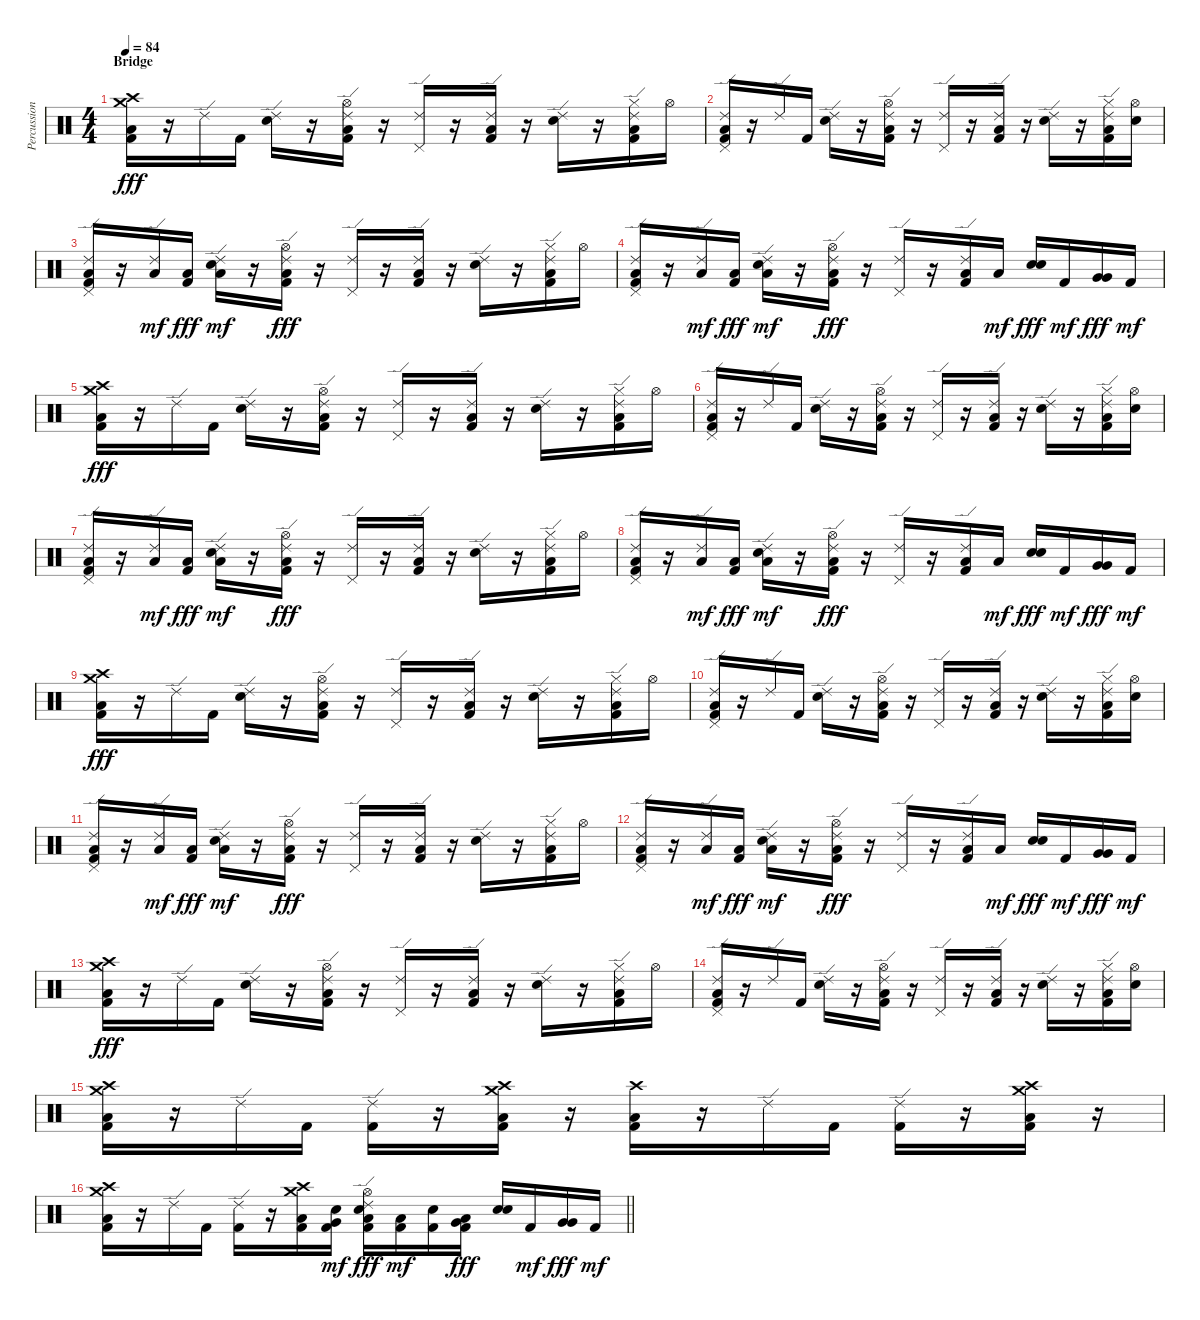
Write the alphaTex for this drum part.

\track ("Percussions" "Percussion") {instrument percussion}
\staff {score}
\articulation defaults
\ts (4 4)
\section ("" "Bridge")
\tempo 84
\clef neutral
\ks c
("Crash medium (hit)" "Crash high (hit)" "Low Floor Tom (hit)" "Kick (hit) 2").16{dy fff} r.16 "Ride (edge) 2".16 "Kick (hit) 2".16 ("Ride (edge) 2" "Electric Snare (hit)").16 r.16 ("Ride (edge) 2" "Hi-Hat (open)" "Low Floor Tom (hit)" "Kick (hit) 2").16 r.16 ("Ride (edge) 2" "Pedal Hi-Hat (hit)").16 r.16 ("Ride (edge) 2" "Low Floor Tom (hit)" "Kick (hit) 2").16 r.16 ("Ride (edge) 2" "Electric Snare (hit)").16 r.16 ("Ride (edge) 2" "Hi-Hat (closed)" "Low Floor Tom (hit)" "Kick (hit) 2").16 "Hi-Hat (open)".16 |
("Ride (edge) 2" "Pedal Hi-Hat (hit)" "Low Floor Tom (hit)" "Kick (hit) 2").16 r.16 "Ride (edge) 2".16 "Kick (hit) 2".16 ("Ride (edge) 2" "Electric Snare (hit)").16 r.16 ("Ride (edge) 2" "Hi-Hat (open)" "Low Floor Tom (hit)" "Kick (hit) 2").16 r.16 ("Ride (edge) 2" "Pedal Hi-Hat (hit)").16 r.16 ("Ride (edge) 2" "Low Floor Tom (hit)" "Kick (hit) 2").16 r.16 ("Ride (edge) 2" "Electric Snare (hit)").16 r.16 ("Ride (edge) 2" "Hi-Hat (closed)" "Low Floor Tom (hit)" "Kick (hit) 2").16 ("Hi-Hat (open)" "Electric Snare (hit)").16 |
("Ride (edge) 2" "Pedal Hi-Hat (hit)" "Low Floor Tom (hit)" "Kick (hit) 2").16 r.16 ("Ride (edge) 2" "Low Floor Tom (hit)").16{dy mf} ("Low Floor Tom (hit)" "Kick (hit) 2").16{dy fff} ("Ride (edge) 2" "Electric Snare (hit)" "Low Floor Tom (hit)").16{dy mf} r.16 ("Ride (edge) 2" "Hi-Hat (open)" "Low Floor Tom (hit)" "Kick (hit) 2").16{dy fff} r.16 ("Ride (edge) 2" "Pedal Hi-Hat (hit)").16 r.16 ("Ride (edge) 2" "Low Floor Tom (hit)" "Kick (hit) 2").16 r.16 ("Ride (edge) 2" "Electric Snare (hit)").16 r.16 ("Ride (edge) 2" "Hi-Hat (closed)" "Low Floor Tom (hit)" "Kick (hit) 2").16 "Hi-Hat (open)".16 |
("Ride (edge) 2" "Pedal Hi-Hat (hit)" "Low Floor Tom (hit)" "Kick (hit) 2").16 r.16 ("Ride (edge) 2" "Low Floor Tom (hit)").16{dy mf} ("Low Floor Tom (hit)" "Kick (hit) 2").16{dy fff} ("Ride (edge) 2" "Electric Snare (hit)" "Low Floor Tom (hit)").16{dy mf} r.16 ("Ride (edge) 2" "Hi-Hat (open)" "Low Floor Tom (hit)" "Kick (hit) 2").16{dy fff} r.16 ("Ride (edge) 2" "Pedal Hi-Hat (hit)").16 r.16 ("Ride (edge) 2" "Low Floor Tom (hit)" "Kick (hit) 2").16 "Low Floor Tom (hit)".16{dy mf} ("Electric Snare (hit)" "Electric Snare (hit)").16{dy fff} "Kick (hit) 2".16{dy mf} ("Very Low Tom (hit)" "Very Low Tom (hit)").16{dy fff} "Kick (hit) 2".16{dy mf} |
("Crash medium (hit)" "Crash high (hit)" "Low Floor Tom (hit)" "Kick (hit) 2").16{dy fff} r.16 "Ride (edge) 2".16 "Kick (hit) 2".16 ("Ride (edge) 2" "Electric Snare (hit)").16 r.16 ("Ride (edge) 2" "Hi-Hat (open)" "Low Floor Tom (hit)" "Kick (hit) 2").16 r.16 ("Ride (edge) 2" "Pedal Hi-Hat (hit)").16 r.16 ("Ride (edge) 2" "Low Floor Tom (hit)" "Kick (hit) 2").16 r.16 ("Ride (edge) 2" "Electric Snare (hit)").16 r.16 ("Ride (edge) 2" "Hi-Hat (closed)" "Low Floor Tom (hit)" "Kick (hit) 2").16 "Hi-Hat (open)".16 |
("Ride (edge) 2" "Pedal Hi-Hat (hit)" "Low Floor Tom (hit)" "Kick (hit) 2").16 r.16 "Ride (edge) 2".16 "Kick (hit) 2".16 ("Ride (edge) 2" "Electric Snare (hit)").16 r.16 ("Ride (edge) 2" "Hi-Hat (open)" "Low Floor Tom (hit)" "Kick (hit) 2").16 r.16 ("Ride (edge) 2" "Pedal Hi-Hat (hit)").16 r.16 ("Ride (edge) 2" "Low Floor Tom (hit)" "Kick (hit) 2").16 r.16 ("Ride (edge) 2" "Electric Snare (hit)").16 r.16 ("Ride (edge) 2" "Hi-Hat (closed)" "Low Floor Tom (hit)" "Kick (hit) 2").16 ("Hi-Hat (open)" "Electric Snare (hit)").16 |
("Ride (edge) 2" "Pedal Hi-Hat (hit)" "Low Floor Tom (hit)" "Kick (hit) 2").16 r.16 ("Ride (edge) 2" "Low Floor Tom (hit)").16{dy mf} ("Low Floor Tom (hit)" "Kick (hit) 2").16{dy fff} ("Ride (edge) 2" "Electric Snare (hit)" "Low Floor Tom (hit)").16{dy mf} r.16 ("Ride (edge) 2" "Hi-Hat (open)" "Low Floor Tom (hit)" "Kick (hit) 2").16{dy fff} r.16 ("Ride (edge) 2" "Pedal Hi-Hat (hit)").16 r.16 ("Ride (edge) 2" "Low Floor Tom (hit)" "Kick (hit) 2").16 r.16 ("Ride (edge) 2" "Electric Snare (hit)").16 r.16 ("Ride (edge) 2" "Hi-Hat (closed)" "Low Floor Tom (hit)" "Kick (hit) 2").16 "Hi-Hat (open)".16 |
("Ride (edge) 2" "Pedal Hi-Hat (hit)" "Low Floor Tom (hit)" "Kick (hit) 2").16 r.16 ("Ride (edge) 2" "Low Floor Tom (hit)").16{dy mf} ("Low Floor Tom (hit)" "Kick (hit) 2").16{dy fff} ("Ride (edge) 2" "Electric Snare (hit)" "Low Floor Tom (hit)").16{dy mf} r.16 ("Ride (edge) 2" "Hi-Hat (open)" "Low Floor Tom (hit)" "Kick (hit) 2").16{dy fff} r.16 ("Ride (edge) 2" "Pedal Hi-Hat (hit)").16 r.16 ("Ride (edge) 2" "Low Floor Tom (hit)" "Kick (hit) 2").16 "Low Floor Tom (hit)".16{dy mf} ("Electric Snare (hit)" "Electric Snare (hit)").16{dy fff} "Kick (hit) 2".16{dy mf} ("Very Low Tom (hit)" "Very Low Tom (hit)").16{dy fff} "Kick (hit) 2".16{dy mf} |
("Crash medium (hit)" "Crash high (hit)" "Low Floor Tom (hit)" "Kick (hit) 2").16{dy fff} r.16 "Ride (edge) 2".16 "Kick (hit) 2".16 ("Ride (edge) 2" "Electric Snare (hit)").16 r.16 ("Ride (edge) 2" "Hi-Hat (open)" "Low Floor Tom (hit)" "Kick (hit) 2").16 r.16 ("Ride (edge) 2" "Pedal Hi-Hat (hit)").16 r.16 ("Ride (edge) 2" "Low Floor Tom (hit)" "Kick (hit) 2").16 r.16 ("Ride (edge) 2" "Electric Snare (hit)").16 r.16 ("Ride (edge) 2" "Hi-Hat (closed)" "Low Floor Tom (hit)" "Kick (hit) 2").16 "Hi-Hat (open)".16 |
("Ride (edge) 2" "Pedal Hi-Hat (hit)" "Low Floor Tom (hit)" "Kick (hit) 2").16 r.16 "Ride (edge) 2".16 "Kick (hit) 2".16 ("Ride (edge) 2" "Electric Snare (hit)").16 r.16 ("Ride (edge) 2" "Hi-Hat (open)" "Low Floor Tom (hit)" "Kick (hit) 2").16 r.16 ("Ride (edge) 2" "Pedal Hi-Hat (hit)").16 r.16 ("Ride (edge) 2" "Low Floor Tom (hit)" "Kick (hit) 2").16 r.16 ("Ride (edge) 2" "Electric Snare (hit)").16 r.16 ("Ride (edge) 2" "Hi-Hat (closed)" "Low Floor Tom (hit)" "Kick (hit) 2").16 ("Hi-Hat (open)" "Electric Snare (hit)").16 |
("Ride (edge) 2" "Pedal Hi-Hat (hit)" "Low Floor Tom (hit)" "Kick (hit) 2").16 r.16 ("Ride (edge) 2" "Low Floor Tom (hit)").16{dy mf} ("Low Floor Tom (hit)" "Kick (hit) 2").16{dy fff} ("Ride (edge) 2" "Electric Snare (hit)" "Low Floor Tom (hit)").16{dy mf} r.16 ("Ride (edge) 2" "Hi-Hat (open)" "Low Floor Tom (hit)" "Kick (hit) 2").16{dy fff} r.16 ("Ride (edge) 2" "Pedal Hi-Hat (hit)").16 r.16 ("Ride (edge) 2" "Low Floor Tom (hit)" "Kick (hit) 2").16 r.16 ("Ride (edge) 2" "Electric Snare (hit)").16 r.16 ("Ride (edge) 2" "Hi-Hat (closed)" "Low Floor Tom (hit)" "Kick (hit) 2").16 "Hi-Hat (open)".16 |
("Ride (edge) 2" "Pedal Hi-Hat (hit)" "Low Floor Tom (hit)" "Kick (hit) 2").16 r.16 ("Ride (edge) 2" "Low Floor Tom (hit)").16{dy mf} ("Low Floor Tom (hit)" "Kick (hit) 2").16{dy fff} ("Ride (edge) 2" "Electric Snare (hit)" "Low Floor Tom (hit)").16{dy mf} r.16 ("Ride (edge) 2" "Hi-Hat (open)" "Low Floor Tom (hit)" "Kick (hit) 2").16{dy fff} r.16 ("Ride (edge) 2" "Pedal Hi-Hat (hit)").16 r.16 ("Ride (edge) 2" "Low Floor Tom (hit)" "Kick (hit) 2").16 "Low Floor Tom (hit)".16{dy mf} ("Electric Snare (hit)" "Electric Snare (hit)").16{dy fff} "Kick (hit) 2".16{dy mf} ("Very Low Tom (hit)" "Very Low Tom (hit)").16{dy fff} "Kick (hit) 2".16{dy mf} |
("Crash medium (hit)" "Crash high (hit)" "Low Floor Tom (hit)" "Kick (hit) 2").16{dy fff} r.16 "Ride (edge) 2".16 "Kick (hit) 2".16 ("Ride (edge) 2" "Electric Snare (hit)").16 r.16 ("Ride (edge) 2" "Hi-Hat (open)" "Low Floor Tom (hit)" "Kick (hit) 2").16 r.16 ("Ride (edge) 2" "Pedal Hi-Hat (hit)").16 r.16 ("Ride (edge) 2" "Low Floor Tom (hit)" "Kick (hit) 2").16 r.16 ("Ride (edge) 2" "Electric Snare (hit)").16 r.16 ("Ride (edge) 2" "Hi-Hat (closed)" "Low Floor Tom (hit)" "Kick (hit) 2").16 "Hi-Hat (open)".16 |
("Ride (edge) 2" "Pedal Hi-Hat (hit)" "Low Floor Tom (hit)" "Kick (hit) 2").16 r.16 "Ride (edge) 2".16 "Kick (hit) 2".16 ("Ride (edge) 2" "Electric Snare (hit)").16 r.16 ("Ride (edge) 2" "Hi-Hat (open)" "Low Floor Tom (hit)" "Kick (hit) 2").16 r.16 ("Ride (edge) 2" "Pedal Hi-Hat (hit)").16 r.16 ("Ride (edge) 2" "Low Floor Tom (hit)" "Kick (hit) 2").16 r.16 ("Ride (edge) 2" "Electric Snare (hit)").16 r.16 ("Ride (edge) 2" "Hi-Hat (closed)" "Low Floor Tom (hit)" "Kick (hit) 2").16 ("Hi-Hat (open)" "Electric Snare (hit)").16 |
("Crash medium (hit)" "Crash high (hit)" "Low Floor Tom (hit)" "Kick (hit) 2").16 r.16 "Ride (edge) 2".16 "Kick (hit) 2".16 ("Ride (edge) 2" "Kick (hit) 2").16 r.16 ("Crash medium (hit)" "Crash high (hit)" "Low Floor Tom (hit)" "Kick (hit) 2").16 r.16 ("Crash high (hit)" "Low Floor Tom (hit)" "Kick (hit) 2").16 r.16 "Ride (edge) 2".16 "Kick (hit) 2".16 ("Ride (edge) 2" "Kick (hit) 2").16 r.16 ("Crash medium (hit)" "Crash high (hit)" "Low Floor Tom (hit)" "Kick (hit) 2").16 r.16 |
\barLineRight lightlight
("Crash medium (hit)" "Crash high (hit)" "Low Floor Tom (hit)" "Kick (hit) 2").16 r.16 "Ride (edge) 2".16 "Kick (hit) 2".16 ("Ride (edge) 2" "Kick (hit) 2").16 r.16 ("Crash medium (hit)" "Crash high (hit)" "Low Floor Tom (hit)" "Kick (hit) 2").16 ("Kick (hit) 2" "Electric Snare (hit)" "Very Low Tom (hit)").16{dy mf} ("Ride (edge) 2" "Hi-Hat (open)" "Electric Snare (hit)" "Low Floor Tom (hit)" "Kick (hit) 2").16{dy fff} ("Kick (hit) 2" "Low Floor Tom (hit)").16{dy mf} ("Kick (hit) 2" "Electric Snare (hit)").16 ("Very Low Tom (hit)" "Low Floor Tom (hit)" "Kick (hit) 2").16{dy fff} ("Electric Snare (hit)" "Electric Snare (hit)").16 "Kick (hit) 2".16{dy mf} ("Very Low Tom (hit)" "Very Low Tom (hit)").16{dy fff} "Kick (hit) 2".16{dy mf}
